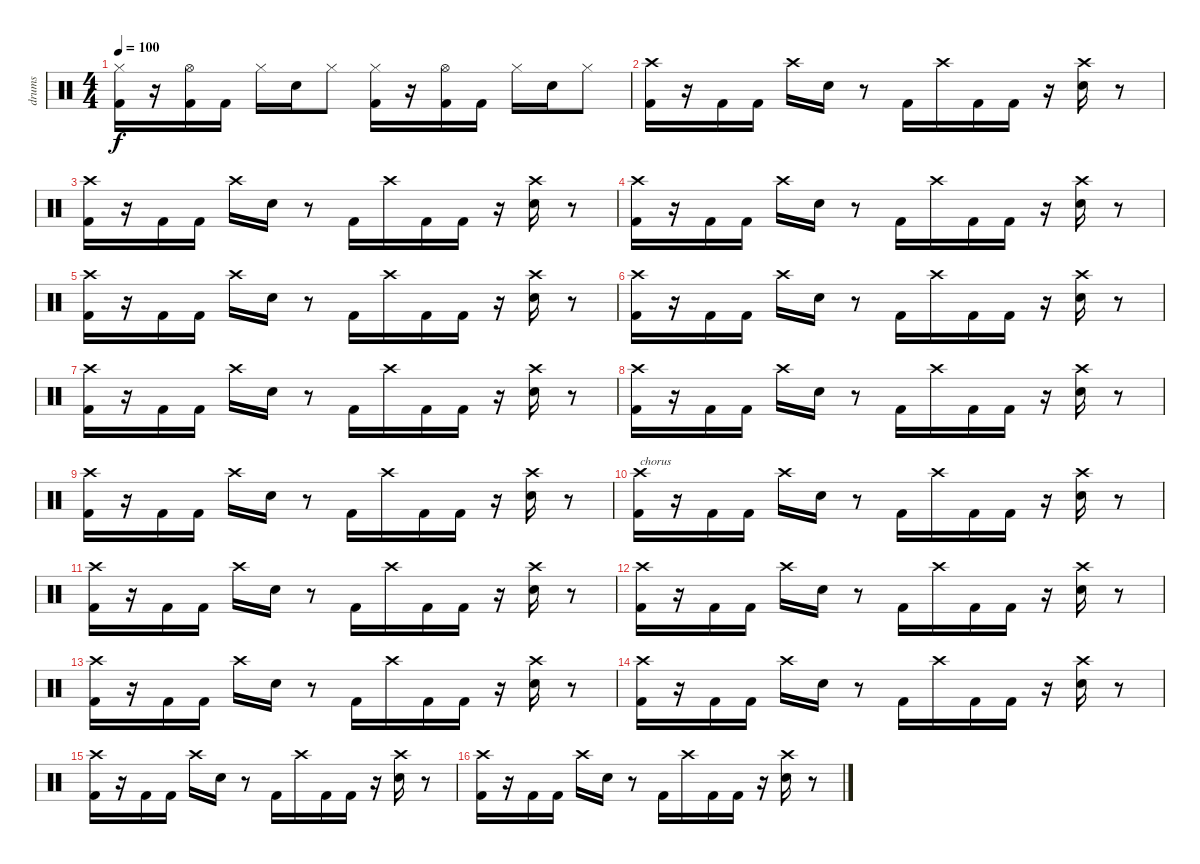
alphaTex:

\track ("drums" "drums") {instrument percussion}
\staff {score}
\articulation defaults
\ts (4 4)
\tempo 100
\clef neutral
\ks c
("Hi-Hat (closed)" "Kick (hit) 2").16{dy f} r.16 ("Hi-Hat (open)" "Kick (hit) 2").16 "Kick (hit) 2".16 "Hi-Hat (closed)".16 "Electric Snare (hit)".16 "Hi-Hat (closed)".8 ("Hi-Hat (closed)" "Kick (hit) 2").16 r.16 ("Hi-Hat (open)" "Kick (hit) 2").16 "Kick (hit) 2".16 "Hi-Hat (closed)".16 "Electric Snare (hit)".16 "Hi-Hat (closed)".8 |
("Crash high (hit)" "Kick (hit) 2").16 r.16 "Kick (hit) 2".16 "Kick (hit) 2".16 "Crash high (hit)".16 "Electric Snare (hit)".16 r.8 "Kick (hit) 2".16 "Crash high (hit)".16 "Kick (hit) 2".16 "Kick (hit) 2".16 r.16 ("Crash high (hit)" "Electric Snare (hit)").16 r.8 |
("Crash high (hit)" "Kick (hit) 2").16 r.16 "Kick (hit) 2".16 "Kick (hit) 2".16 "Crash high (hit)".16 "Electric Snare (hit)".16 r.8 "Kick (hit) 2".16 "Crash high (hit)".16 "Kick (hit) 2".16 "Kick (hit) 2".16 r.16 ("Crash high (hit)" "Electric Snare (hit)").16 r.8 |
("Crash high (hit)" "Kick (hit) 2").16 r.16 "Kick (hit) 2".16 "Kick (hit) 2".16 "Crash high (hit)".16 "Electric Snare (hit)".16 r.8 "Kick (hit) 2".16 "Crash high (hit)".16 "Kick (hit) 2".16 "Kick (hit) 2".16 r.16 ("Crash high (hit)" "Electric Snare (hit)").16 r.8 |
("Crash high (hit)" "Kick (hit) 2").16 r.16 "Kick (hit) 2".16 "Kick (hit) 2".16 "Crash high (hit)".16 "Electric Snare (hit)".16 r.8 "Kick (hit) 2".16 "Crash high (hit)".16 "Kick (hit) 2".16 "Kick (hit) 2".16 r.16 ("Crash high (hit)" "Electric Snare (hit)").16 r.8 |
("Crash high (hit)" "Kick (hit) 2").16 r.16 "Kick (hit) 2".16 "Kick (hit) 2".16 "Crash high (hit)".16 "Electric Snare (hit)".16 r.8 "Kick (hit) 2".16 "Crash high (hit)".16 "Kick (hit) 2".16 "Kick (hit) 2".16 r.16 ("Crash high (hit)" "Electric Snare (hit)").16 r.8 |
("Crash high (hit)" "Kick (hit) 2").16 r.16 "Kick (hit) 2".16 "Kick (hit) 2".16 "Crash high (hit)".16 "Electric Snare (hit)".16 r.8 "Kick (hit) 2".16 "Crash high (hit)".16 "Kick (hit) 2".16 "Kick (hit) 2".16 r.16 ("Crash high (hit)" "Electric Snare (hit)").16 r.8 |
("Crash high (hit)" "Kick (hit) 2").16 r.16 "Kick (hit) 2".16 "Kick (hit) 2".16 "Crash high (hit)".16 "Electric Snare (hit)".16 r.8 "Kick (hit) 2".16 "Crash high (hit)".16 "Kick (hit) 2".16 "Kick (hit) 2".16 r.16 ("Crash high (hit)" "Electric Snare (hit)").16 r.8 |
("Crash high (hit)" "Kick (hit) 2").16 r.16 "Kick (hit) 2".16 "Kick (hit) 2".16 "Crash high (hit)".16 "Electric Snare (hit)".16 r.8 "Kick (hit) 2".16 "Crash high (hit)".16 "Kick (hit) 2".16 "Kick (hit) 2".16 r.16 ("Crash high (hit)" "Electric Snare (hit)").16 r.8 |
("Crash high (hit)" "Kick (hit) 2").16{txt "chorus"} r.16 "Kick (hit) 2".16 "Kick (hit) 2".16 "Crash high (hit)".16 "Electric Snare (hit)".16 r.8 "Kick (hit) 2".16 "Crash high (hit)".16 "Kick (hit) 2".16 "Kick (hit) 2".16 r.16 ("Crash high (hit)" "Electric Snare (hit)").16 r.8 |
("Crash high (hit)" "Kick (hit) 2").16 r.16 "Kick (hit) 2".16 "Kick (hit) 2".16 "Crash high (hit)".16 "Electric Snare (hit)".16 r.8 "Kick (hit) 2".16 "Crash high (hit)".16 "Kick (hit) 2".16 "Kick (hit) 2".16 r.16 ("Crash high (hit)" "Electric Snare (hit)").16 r.8 |
("Crash high (hit)" "Kick (hit) 2").16 r.16 "Kick (hit) 2".16 "Kick (hit) 2".16 "Crash high (hit)".16 "Electric Snare (hit)".16 r.8 "Kick (hit) 2".16 "Crash high (hit)".16 "Kick (hit) 2".16 "Kick (hit) 2".16 r.16 ("Crash high (hit)" "Electric Snare (hit)").16 r.8 |
("Crash high (hit)" "Kick (hit) 2").16 r.16 "Kick (hit) 2".16 "Kick (hit) 2".16 "Crash high (hit)".16 "Electric Snare (hit)".16 r.8 "Kick (hit) 2".16 "Crash high (hit)".16 "Kick (hit) 2".16 "Kick (hit) 2".16 r.16 ("Crash high (hit)" "Electric Snare (hit)").16 r.8 |
("Crash high (hit)" "Kick (hit) 2").16 r.16 "Kick (hit) 2".16 "Kick (hit) 2".16 "Crash high (hit)".16 "Electric Snare (hit)".16 r.8 "Kick (hit) 2".16 "Crash high (hit)".16 "Kick (hit) 2".16 "Kick (hit) 2".16 r.16 ("Crash high (hit)" "Electric Snare (hit)").16 r.8 |
("Crash high (hit)" "Kick (hit) 2").16 r.16 "Kick (hit) 2".16 "Kick (hit) 2".16 "Crash high (hit)".16 "Electric Snare (hit)".16 r.8 "Kick (hit) 2".16 "Crash high (hit)".16 "Kick (hit) 2".16 "Kick (hit) 2".16 r.16 ("Crash high (hit)" "Electric Snare (hit)").16 r.8 |
("Crash high (hit)" "Kick (hit) 2").16 r.16 "Kick (hit) 2".16 "Kick (hit) 2".16 "Crash high (hit)".16 "Electric Snare (hit)".16 r.8 "Kick (hit) 2".16 "Crash high (hit)".16 "Kick (hit) 2".16 "Kick (hit) 2".16 r.16 ("Crash high (hit)" "Electric Snare (hit)").16 r.8
